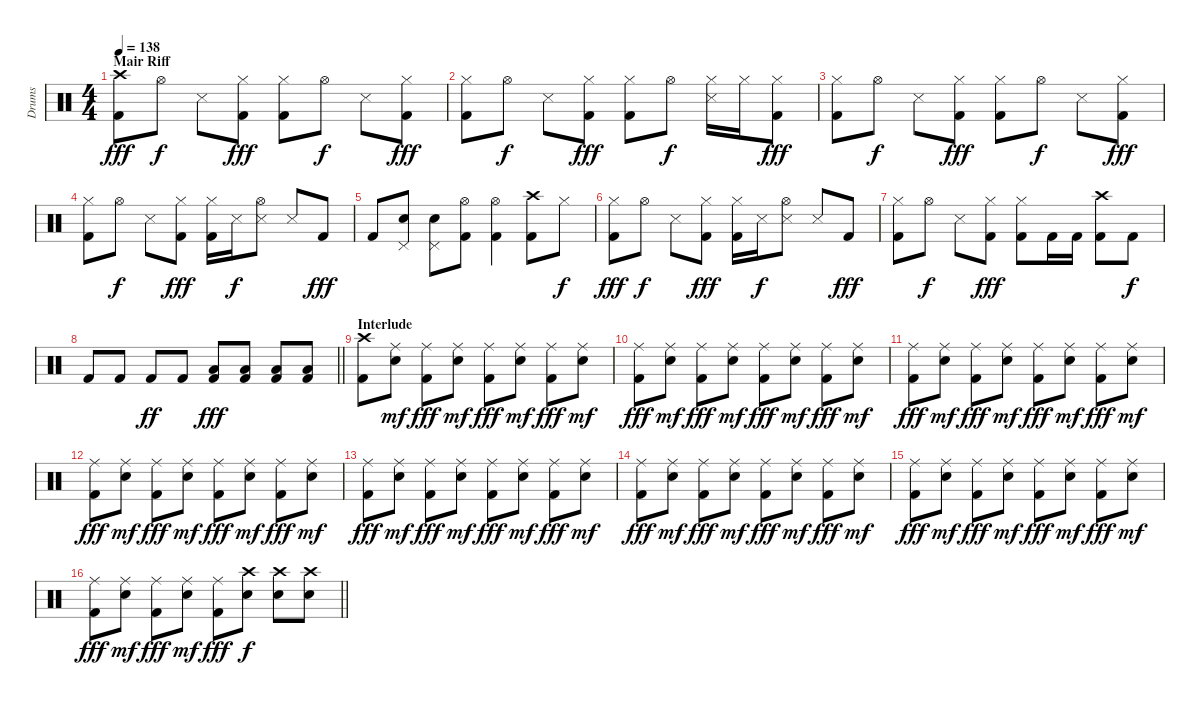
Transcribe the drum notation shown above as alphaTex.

\track ("Drums" "Drums") {instrument percussion}
\staff {score}
\articulation defaults
\ts (4 4)
\section ("" "Mair Riff")
\tempo 138
\clef neutral
\ks c
("Crash high (hit)" "Kick (hit) 2").8{dy fff} "Hi-Hat (open)".8{dy f} "Metronome (hit)".8 ("Hi-Hat (closed)" "Kick (hit) 2").8{dy fff} ("Hi-Hat (closed)" "Kick (hit) 2").8 "Hi-Hat (open)".8{dy f} "Metronome (hit)".8 ("Hi-Hat (closed)" "Kick (hit) 2").8{dy fff} |
("Hi-Hat (closed)" "Kick (hit) 2").8 "Hi-Hat (open)".8{dy f} "Metronome (hit)".8 ("Hi-Hat (closed)" "Kick (hit) 2").8{dy fff} ("Hi-Hat (closed)" "Kick (hit) 2").8 "Hi-Hat (open)".8{dy f} ("Hi-Hat (closed)" "Metronome (hit)").16 "Hi-Hat (closed)".16 ("Hi-Hat (closed)" "Kick (hit) 2").8{dy fff} |
("Hi-Hat (closed)" "Kick (hit) 2").8 "Hi-Hat (open)".8{dy f} "Metronome (hit)".8 ("Hi-Hat (closed)" "Kick (hit) 2").8{dy fff} ("Hi-Hat (closed)" "Kick (hit) 2").8 "Hi-Hat (open)".8{dy f} "Metronome (hit)".8 ("Hi-Hat (closed)" "Kick (hit) 2").8{dy fff} |
("Hi-Hat (closed)" "Kick (hit) 2").8 "Hi-Hat (open)".8{dy f} "Metronome (hit)".8 ("Hi-Hat (closed)" "Kick (hit) 2").8{dy fff} ("Hi-Hat (closed)" "Kick (hit) 2").16 "Metronome (hit)".16{dy f} ("Hi-Hat (open)" "Metronome (hit)").8 "Metronome (hit)".8 "Kick (hit) 2".8{dy fff} |
"Kick (hit) 2".8 ("Pedal Hi-Hat (hit)" "Electric Snare (hit)").8 ("Pedal Hi-Hat (hit)" "Electric Snare (hit)").8 ("Hi-Hat (open)" "Kick (hit) 2").8 ("Hi-Hat (open)" "Kick (hit) 2").4 ("Crash high (hit)" "Kick (hit) 2").8 "Hi-Hat (closed)".8{dy f} |
("Hi-Hat (closed)" "Kick (hit) 2").8{dy fff} "Hi-Hat (open)".8{dy f} "Metronome (hit)".8 ("Hi-Hat (closed)" "Kick (hit) 2").8{dy fff} ("Hi-Hat (closed)" "Kick (hit) 2").16 "Metronome (hit)".16{dy f} ("Hi-Hat (open)" "Metronome (hit)").8 "Metronome (hit)".8 "Kick (hit) 2".8{dy fff} |
("Hi-Hat (closed)" "Kick (hit) 2").8 "Hi-Hat (open)".8{dy f} "Metronome (hit)".8 ("Hi-Hat (closed)" "Kick (hit) 2").8{dy fff} ("Hi-Hat (closed)" "Kick (hit) 2").8 "Kick (hit) 2".16 "Kick (hit) 2".16 ("Crash high (hit)" "Kick (hit) 2").8 "Kick (hit) 2".8{dy f} |
\barLineRight lightlight "Kick (hit) 2".8 "Kick (hit) 2".8 "Kick (hit) 2".8{dy ff} "Kick (hit) 2".8
("Low Floor Tom (hit)" "Kick (hit) 2").8{dy fff} ("Low Floor Tom (hit)" "Kick (hit) 2").8 ("Low Floor Tom (hit)" "Kick (hit) 2").8 ("Low Floor Tom (hit)" "Kick (hit) 2").8 |
\section ("" "Interlude")
("Crash high (hit)" "Kick (hit) 2").8 ("Ride (middle)" "Electric Snare (hit)").8{dy mf} ("Ride (middle)" "Kick (hit) 2").8{dy fff} ("Ride (middle)" "Electric Snare (hit)").8{dy mf} ("Ride (middle)" "Kick (hit) 2").8{dy fff} ("Ride (middle)" "Electric Snare (hit)").8{dy mf} ("Ride (middle)" "Kick (hit) 2").8{dy fff} ("Ride (middle)" "Electric Snare (hit)").8{dy mf} |
("Ride (middle)" "Kick (hit) 2").8{dy fff} ("Ride (middle)" "Electric Snare (hit)").8{dy mf} ("Ride (middle)" "Kick (hit) 2").8{dy fff} ("Ride (middle)" "Electric Snare (hit)").8{dy mf} ("Ride (middle)" "Kick (hit) 2").8{dy fff} ("Ride (middle)" "Electric Snare (hit)").8{dy mf} ("Ride (middle)" "Kick (hit) 2").8{dy fff} ("Ride (middle)" "Electric Snare (hit)").8{dy mf} |
("Ride (middle)" "Kick (hit) 2").8{dy fff} ("Ride (middle)" "Electric Snare (hit)").8{dy mf} ("Ride (middle)" "Kick (hit) 2").8{dy fff} ("Ride (middle)" "Electric Snare (hit)").8{dy mf} ("Ride (middle)" "Kick (hit) 2").8{dy fff} ("Ride (middle)" "Electric Snare (hit)").8{dy mf} ("Ride (middle)" "Kick (hit) 2").8{dy fff} ("Ride (middle)" "Electric Snare (hit)").8{dy mf} |
("Ride (middle)" "Kick (hit) 2").8{dy fff} ("Ride (middle)" "Electric Snare (hit)").8{dy mf} ("Ride (middle)" "Kick (hit) 2").8{dy fff} ("Ride (middle)" "Electric Snare (hit)").8{dy mf} ("Ride (middle)" "Kick (hit) 2").8{dy fff} ("Ride (middle)" "Electric Snare (hit)").8{dy mf} ("Ride (middle)" "Kick (hit) 2").8{dy fff} ("Ride (middle)" "Electric Snare (hit)").8{dy mf} |
("Ride (middle)" "Kick (hit) 2").8{dy fff} ("Ride (middle)" "Electric Snare (hit)").8{dy mf} ("Ride (middle)" "Kick (hit) 2").8{dy fff} ("Ride (middle)" "Electric Snare (hit)").8{dy mf} ("Ride (middle)" "Kick (hit) 2").8{dy fff} ("Ride (middle)" "Electric Snare (hit)").8{dy mf} ("Ride (middle)" "Kick (hit) 2").8{dy fff} ("Ride (middle)" "Electric Snare (hit)").8{dy mf} |
("Ride (middle)" "Kick (hit) 2").8{dy fff} ("Ride (middle)" "Electric Snare (hit)").8{dy mf} ("Ride (middle)" "Kick (hit) 2").8{dy fff} ("Ride (middle)" "Electric Snare (hit)").8{dy mf} ("Ride (middle)" "Kick (hit) 2").8{dy fff} ("Ride (middle)" "Electric Snare (hit)").8{dy mf} ("Ride (middle)" "Kick (hit) 2").8{dy fff} ("Ride (middle)" "Electric Snare (hit)").8{dy mf} |
("Ride (middle)" "Kick (hit) 2").8{dy fff} ("Ride (middle)" "Electric Snare (hit)").8{dy mf} ("Ride (middle)" "Kick (hit) 2").8{dy fff} ("Ride (middle)" "Electric Snare (hit)").8{dy mf} ("Ride (middle)" "Kick (hit) 2").8{dy fff} ("Ride (middle)" "Electric Snare (hit)").8{dy mf} ("Ride (middle)" "Kick (hit) 2").8{dy fff} ("Ride (middle)" "Electric Snare (hit)").8{dy mf} |
\barLineRight lightlight
("Ride (middle)" "Kick (hit) 2").8{dy fff} ("Ride (middle)" "Electric Snare (hit)").8{dy mf} ("Ride (middle)" "Kick (hit) 2").8{dy fff} ("Ride (middle)" "Electric Snare (hit)").8{dy mf} ("Ride (middle)" "Kick (hit) 2").8{dy fff} ("Crash high (hit)" "Electric Snare (hit)").8{dy f} ("Crash high (hit)" "Electric Snare (hit)").8 ("Crash high (hit)" "Electric Snare (hit)").8
